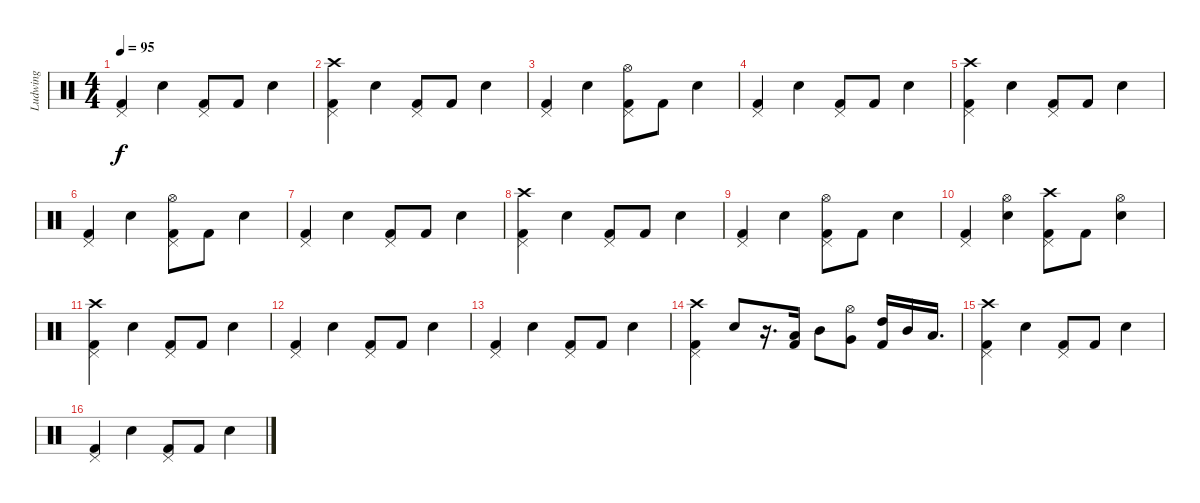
\track ("Ludwing" "Ludwing") {instrument percussion}
\staff {score}
\articulation defaults
\ts (4 4)
\tempo 95
\clef neutral
\ks c
("Kick (hit) 2" "Pedal Hi-Hat (hit)").4{dy f} "Snare (hit) 2".4 ("Kick (hit) 2" "Pedal Hi-Hat (hit)").8 "Kick (hit) 2".8 "Snare (hit) 2".4 |
("Kick (hit) 2" "Pedal Hi-Hat (hit)" "Crash high (hit)").4 "Snare (hit) 2".4 ("Kick (hit) 2" "Pedal Hi-Hat (hit)").8 "Kick (hit) 2".8 "Snare (hit) 2".4 |
("Kick (hit) 2" "Pedal Hi-Hat (hit)").4 "Snare (hit) 2".4 ("Kick (hit) 2" "Pedal Hi-Hat (hit)" "Hi-Hat (open)").8 "Kick (hit) 2".8 "Snare (hit) 2".4 |
("Kick (hit) 2" "Pedal Hi-Hat (hit)").4 "Snare (hit) 2".4 ("Kick (hit) 2" "Pedal Hi-Hat (hit)").8 "Kick (hit) 2".8 "Snare (hit) 2".4 |
("Kick (hit) 2" "Pedal Hi-Hat (hit)" "Crash high (hit)").4 "Snare (hit) 2".4 ("Kick (hit) 2" "Pedal Hi-Hat (hit)").8 "Kick (hit) 2".8 "Snare (hit) 2".4 |
("Kick (hit) 2" "Pedal Hi-Hat (hit)").4 "Snare (hit) 2".4 ("Kick (hit) 2" "Pedal Hi-Hat (hit)" "Hi-Hat (open)").8 "Kick (hit) 2".8 "Snare (hit) 2".4 |
("Kick (hit) 2" "Pedal Hi-Hat (hit)").4 "Snare (hit) 2".4 ("Kick (hit) 2" "Pedal Hi-Hat (hit)").8 "Kick (hit) 2".8 "Snare (hit) 2".4 |
("Kick (hit) 2" "Pedal Hi-Hat (hit)" "Crash high (hit)").4 "Snare (hit) 2".4 ("Kick (hit) 2" "Pedal Hi-Hat (hit)").8 "Kick (hit) 2".8 "Snare (hit) 2".4 |
("Kick (hit) 2" "Pedal Hi-Hat (hit)").4 "Snare (hit) 2".4 ("Kick (hit) 2" "Pedal Hi-Hat (hit)" "Hi-Hat (open)").8 "Kick (hit) 2".8 "Snare (hit) 2".4 |
("Kick (hit) 2" "Pedal Hi-Hat (hit)").4 ("Snare (hit) 2" "Hi-Hat (open)").4 ("Kick (hit) 2" "Pedal Hi-Hat (hit)" "Crash high (hit)").8 "Kick (hit) 2".8 ("Snare (hit) 2" "Hi-Hat (open)").4 |
("Kick (hit) 2" "Pedal Hi-Hat (hit)" "Crash high (hit)").4 "Snare (hit) 2".4 ("Kick (hit) 2" "Pedal Hi-Hat (hit)").8 "Kick (hit) 2".8 "Snare (hit) 2".4 |
("Kick (hit) 2" "Pedal Hi-Hat (hit)").4 "Snare (hit) 2".4 ("Kick (hit) 2" "Pedal Hi-Hat (hit)").8 "Kick (hit) 2".8 "Snare (hit) 2".4 |
("Kick (hit) 2" "Pedal Hi-Hat (hit)").4 "Snare (hit) 2".4 ("Kick (hit) 2" "Pedal Hi-Hat (hit)").8 "Kick (hit) 2".8 "Snare (hit) 2".4 |
("Kick (hit) 2" "Pedal Hi-Hat (hit)" "Crash high (hit)").4 "Snare (hit) 2".8 r.16{d} ("Kick (hit) 2" "Low Tom (hit)").16 "Mid Tom (hit)".8 ("Very Low Tom (hit)" "Hi-Hat (open)").8 ("Kick (hit) 2" "High Tom (hit)").16 "Mid Tom (hit)".16 "Low Tom (hit)".16{d} |
("Kick (hit) 2" "Pedal Hi-Hat (hit)" "Crash high (hit)").4 "Snare (hit) 2".4 ("Kick (hit) 2" "Pedal Hi-Hat (hit)").8 "Kick (hit) 2".8 "Snare (hit) 2".4 |
("Kick (hit) 2" "Pedal Hi-Hat (hit)").4 "Snare (hit) 2".4 ("Kick (hit) 2" "Pedal Hi-Hat (hit)").8 "Kick (hit) 2".8 "Snare (hit) 2".4
